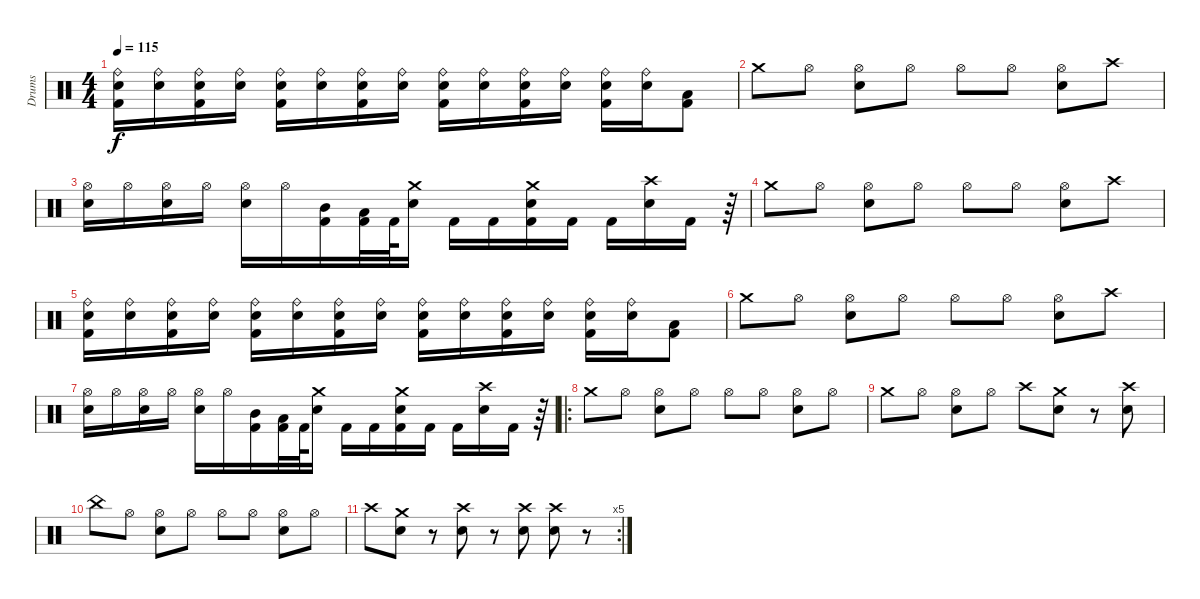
\track ("Drums" "Drums") {instrument percussion}
\staff {score}
\articulation defaults
\ts (4 4)
\tempo 115
\clef neutral
\ks c
("Kick (hit) 2" "Ride (bell)" "Snare (hit) 2").16{dy f} ("Ride (bell)" "Snare (hit) 2").16 ("Kick (hit) 2" "Ride (bell)" "Snare (hit) 2").16 ("Ride (bell)" "Snare (hit) 2").16 ("Kick (hit) 2" "Ride (bell)" "Snare (hit) 2").16 ("Ride (bell)" "Snare (hit) 2").16 ("Kick (hit) 2" "Ride (bell)" "Snare (hit) 2").16 ("Ride (bell)" "Snare (hit) 2").16 ("Kick (hit) 2" "Ride (bell)" "Snare (hit) 2").16 ("Ride (bell)" "Snare (hit) 2").16 ("Kick (hit) 2" "Ride (bell)" "Snare (hit) 2").16 ("Ride (bell)" "Snare (hit) 2").16 ("Kick (hit) 2" "Ride (bell)" "Snare (hit) 2").16 ("Ride (bell)" "Snare (hit) 2").16 ("Kick (hit) 2" "Low Tom (hit)").8 |
"Crash medium (hit)".8 "Hi-Hat (open)".8 ("Hi-Hat (open)" "Snare (hit) 2").8 "Hi-Hat (open)".8 "Hi-Hat (open)".8 "Hi-Hat (open)".8 ("Hi-Hat (open)" "Snare (hit) 2").8 "Crash high (hit)".8 |
("Hi-Hat (open)" "Snare (hit) 2").16 "Hi-Hat (open)".16 ("Hi-Hat (open)" "Snare (hit) 2").16 "Hi-Hat (open)".16 ("Hi-Hat (open)" "Snare (hit) 2").16 "Hi-Hat (open)".16 ("Kick (hit) 2" "Mid Tom (hit)").16 ("Kick (hit) 2" "Low Tom (hit)").32 "Kick (hit) 2".64 ("Crash medium (hit)" "Snare (hit) 2").16 "Kick (hit) 2".16 "Kick (hit) 2".16 ("Kick (hit) 2" "Crash medium (hit)" "Snare (hit) 2").16 "Kick (hit) 2".16 "Kick (hit) 2".16 ("Crash high (hit)" "Snare (hit) 2").16 "Kick (hit) 2".16 r.64 |
"Crash medium (hit)".8 "Hi-Hat (open)".8 ("Hi-Hat (open)" "Snare (hit) 2").8 "Hi-Hat (open)".8 "Hi-Hat (open)".8 "Hi-Hat (open)".8 ("Hi-Hat (open)" "Snare (hit) 2").8 "Crash high (hit)".8 |
("Kick (hit) 2" "Ride (bell)" "Snare (hit) 2").16 ("Ride (bell)" "Snare (hit) 2").16 ("Kick (hit) 2" "Ride (bell)" "Snare (hit) 2").16 ("Ride (bell)" "Snare (hit) 2").16 ("Kick (hit) 2" "Ride (bell)" "Snare (hit) 2").16 ("Ride (bell)" "Snare (hit) 2").16 ("Kick (hit) 2" "Ride (bell)" "Snare (hit) 2").16 ("Ride (bell)" "Snare (hit) 2").16 ("Kick (hit) 2" "Ride (bell)" "Snare (hit) 2").16 ("Ride (bell)" "Snare (hit) 2").16 ("Kick (hit) 2" "Ride (bell)" "Snare (hit) 2").16 ("Ride (bell)" "Snare (hit) 2").16 ("Kick (hit) 2" "Ride (bell)" "Snare (hit) 2").16 ("Ride (bell)" "Snare (hit) 2").16 ("Kick (hit) 2" "Low Tom (hit)").8 |
"Crash medium (hit)".8 "Hi-Hat (open)".8 ("Hi-Hat (open)" "Snare (hit) 2").8 "Hi-Hat (open)".8 "Hi-Hat (open)".8 "Hi-Hat (open)".8 ("Hi-Hat (open)" "Snare (hit) 2").8 "Crash high (hit)".8 |
("Hi-Hat (open)" "Snare (hit) 2").16 "Hi-Hat (open)".16 ("Hi-Hat (open)" "Snare (hit) 2").16 "Hi-Hat (open)".16 ("Hi-Hat (open)" "Snare (hit) 2").16 "Hi-Hat (open)".16 ("Kick (hit) 2" "Mid Tom (hit)").16 ("Kick (hit) 2" "Low Tom (hit)").32 "Kick (hit) 2".64 ("Crash medium (hit)" "Snare (hit) 2").16 "Kick (hit) 2".16 "Kick (hit) 2".16 ("Kick (hit) 2" "Crash medium (hit)" "Snare (hit) 2").16 "Kick (hit) 2".16 "Kick (hit) 2".16 ("Crash high (hit)" "Snare (hit) 2").16 "Kick (hit) 2".16 r.64 |
\ro "Crash medium (hit)".8 "Hi-Hat (open)".8
("Hi-Hat (open)" "Snare (hit) 2").8 "Hi-Hat (open)".8 "Hi-Hat (open)".8 "Hi-Hat (open)".8 ("Hi-Hat (open)" "Snare (hit) 2").8 "Hi-Hat (open)".8 |
"Crash medium (hit)".8 "Hi-Hat (open)".8 ("Hi-Hat (open)" "Snare (hit) 2").8 "Hi-Hat (open)".8 "Crash high (hit)".8 ("Crash medium (hit)" "Snare (hit) 2").8 r.8 ("Crash high (hit)" "Snare (hit) 2").8 |
"China (hit)".8 "Hi-Hat (open)".8 ("Hi-Hat (open)" "Snare (hit) 2").8 "Hi-Hat (open)".8 "Hi-Hat (open)".8 "Hi-Hat (open)".8 ("Hi-Hat (open)" "Snare (hit) 2").8 "Hi-Hat (open)".8 |
\rc 5 "Crash high (hit)".8
("Crash medium (hit)" "Snare (hit) 2").8 r.8 ("Crash high (hit)" "Snare (hit) 2").8 r.8 ("Crash high (hit)" "Snare (hit) 2").8 ("Crash high (hit)" "Snare (hit) 2").8 r.8
